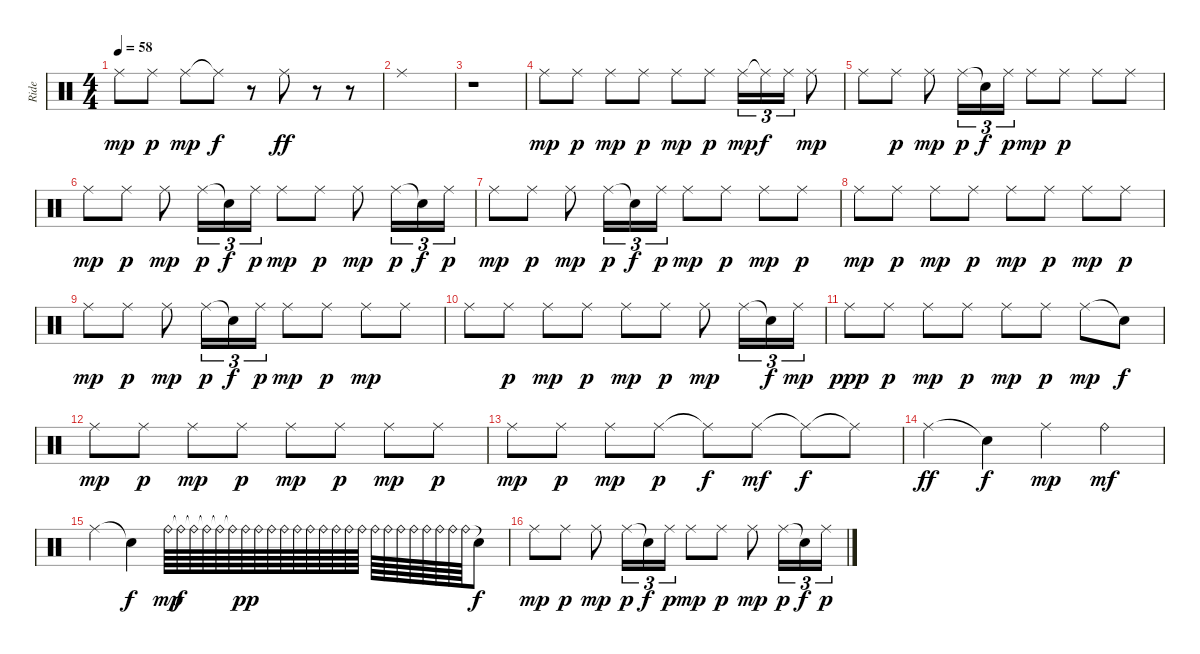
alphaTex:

\track ("Ride" "Ride") {instrument percussion}
\staff {score}
\articulation defaults
\ts (4 4)
\tempo 58
\clef neutral
\ks c "Ride (middle)".8{dy mp} "Ride (middle)".8{dy p} "Ride (middle)".8{dy mp} "Ride (middle)"{t}.8{dy f}
r.8 "Ride (middle)".8{dy ff} r.8 r.8 |
"Ride (middle)".1 |
r.1 |
"Ride (middle)".8{dy mp} "Ride (middle)".8{dy p} "Ride (middle)".8{dy mp} "Ride (middle)".8{dy p} "Ride (middle)".8{dy mp} "Ride (middle)".8{dy p} "Ride (middle)".16{tu (3 2) dy mp} "Ride (middle)"{t}.16{tu (3 2) dy f} "Ride (middle)".16{tu (3 2)} "Ride (middle)".8{dy mp} |
"Ride (middle)".8 "Ride (middle)".8{dy p} "Ride (middle)".8{dy mp} "Ride (middle)".16{tu (3 2) dy p} "Snare (hit)"{t}.16{tu (3 2) dy f} "Ride (middle)".16{tu (3 2) dy p} "Ride (middle)".8{dy mp} "Ride (middle)".8{dy p} "Ride (middle)".8 "Ride (middle)".8 |
"Ride (middle)".8{dy mp} "Ride (middle)".8{dy p} "Ride (middle)".8{dy mp} "Ride (middle)".16{tu (3 2) dy p} "Snare (hit)"{t}.16{tu (3 2) dy f} "Ride (middle)".16{tu (3 2) dy p} "Ride (middle)".8{dy mp} "Ride (middle)".8{dy p} "Ride (middle)".8{dy mp} "Ride (middle)".16{tu (3 2) dy p} "Snare (hit)"{t}.16{tu (3 2) dy f} "Ride (middle)".16{tu (3 2) dy p} |
"Ride (middle)".8{dy mp} "Ride (middle)".8{dy p} "Ride (middle)".8{dy mp} "Ride (middle)".16{tu (3 2) dy p} "Snare (hit)"{t}.16{tu (3 2) dy f} "Ride (middle)".16{tu (3 2) dy p} "Ride (middle)".8{dy mp} "Ride (middle)".8{dy p} "Ride (middle)".8{dy mp} "Ride (middle)".8{dy p} |
"Ride (middle)".8{dy mp} "Ride (middle)".8{dy p} "Ride (middle)".8{dy mp} "Ride (middle)".8{dy p} "Ride (middle)".8{dy mp} "Ride (middle)".8{dy p} "Ride (middle)".8{dy mp} "Ride (middle)".8{dy p} |
"Ride (middle)".8{dy mp} "Ride (middle)".8{dy p} "Ride (middle)".8{dy mp} "Ride (middle)".16{tu (3 2) dy p} "Snare (hit)"{t}.16{tu (3 2) dy f} "Ride (middle)".16{tu (3 2) dy p} "Ride (middle)".8{dy mp} "Ride (middle)".8{dy p} "Ride (middle)".8{dy mp} "Ride (middle)".8 |
"Ride (middle)".8 "Ride (middle)".8{dy p} "Ride (middle)".8{dy mp} "Ride (middle)".8{dy p} "Ride (middle)".8{dy mp} "Ride (middle)".8{dy p} "Ride (middle)".8{dy mp} "Ride (middle)".16{tu (3 2)} "Snare (hit)"{t}.16{tu (3 2) dy f} "Ride (middle)".16{tu (3 2) dy mp} |
"Ride (middle)".8{dy ppp} "Ride (middle)".8{dy p} "Ride (middle)".8{dy mp} "Ride (middle)".8{dy p} "Ride (middle)".8{dy mp} "Ride (middle)".8{dy p} "Ride (middle)".8{dy mp} "Snare (hit)"{t}.8{dy f} |
"Ride (middle)".8{dy mp} "Ride (middle)".8{dy p} "Ride (middle)".8{dy mp} "Ride (middle)".8{dy p} "Ride (middle)".8{dy mp} "Ride (middle)".8{dy p} "Ride (middle)".8{dy mp} "Ride (middle)".8{dy p} |
"Ride (middle)".8{dy mp} "Ride (middle)".8{dy p} "Ride (middle)".8{dy mp} "Ride (middle)".8{dy p} "Ride (middle)"{t}.8{dy f} "Ride (middle)".8{dy mf} "Ride (middle)"{t}.8{dy f} "Ride (middle)"{t}.8 |
"Ride (middle)".4{dy ff} "Snare (hit)"{t}.4{dy f} "Ride (middle)".4{dy mp} "Ride (bell)".4{dy mf} |
"Ride (middle)".4 "Snare (hit)"{t}.4{dy f} "Ride (bell)".64{dy mp} "Ride (bell)"{t}.64{dy f} "Ride (bell)"{t}.64 "Ride (bell)"{t}.64 "Ride (bell)"{t}.64 "Ride (bell)"{t}.64 "Ride (bell)".64{dy pp} "Ride (bell)".64 "Ride (bell)".64 "Ride (bell)".64 "Ride (bell)".64 "Ride (bell)".64 "Ride (bell)".64 "Ride (bell)".64 "Ride (bell)".64 "Ride (bell)".64 "Ride (bell)".64 "Ride (bell)".64 "Ride (bell)".64 "Ride (bell)".64 "Ride (bell)".64 "Ride (bell)".64 "Ride (bell)".64 "Ride (bell)".64 "Snare (hit)"{t}.8{dy f} |
"Ride (middle)".8{dy mp} "Ride (middle)".8{dy p} "Ride (middle)".8{dy mp} "Ride (middle)".16{tu (3 2) dy p} "Snare (hit)"{t}.16{tu (3 2) dy f} "Ride (middle)".16{tu (3 2) dy p} "Ride (middle)".8{dy mp} "Ride (middle)".8{dy p} "Ride (middle)".8{dy mp} "Ride (middle)".16{tu (3 2) dy p} "Snare (hit)"{t}.16{tu (3 2) dy f} "Ride (middle)".16{tu (3 2) dy p}
